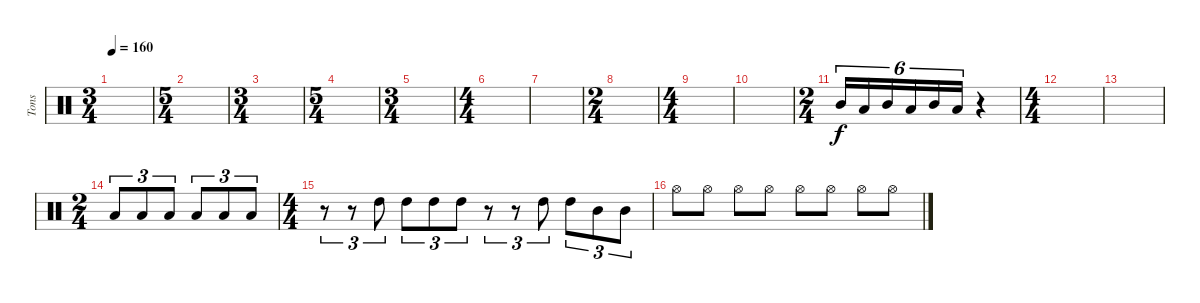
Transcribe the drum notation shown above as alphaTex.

\track ("Tons" "Tons") {instrument percussion}
\staff {score}
\articulation defaults
\ts (3 4)
\tempo 160
\clef neutral
\ks c
|
\ts (5 4)
|
\ts (3 4)
|
\ts (5 4)
|
\ts (3 4)
|
\ts (4 4)
|
|
\ts (2 4)
|
\ts (4 4)
|
|
\ts (2 4)
"Mid Tom (hit)".16{tu (6 4)} "Low Tom (hit)".16{tu (6 4)} "Mid Tom (hit)".16{tu (6 4)} "Low Tom (hit)".16{tu (6 4)} "Mid Tom (hit)".16{tu (6 4)} "Low Tom (hit)".16{tu (6 4)} r.4 |
\ts (4 4)
|
|
\ts (2 4)
"Low Tom (hit)".8{tu (3 2)} "Low Tom (hit)".8{tu (3 2)} "Low Tom (hit)".8{tu (3 2)} "Low Tom (hit)".8{tu (3 2)} "Low Tom (hit)".8{tu (3 2)} "Low Tom (hit)".8{tu (3 2)} |
\ts (4 4)
r.8{tu (3 2)} r.8{tu (3 2)} "High Tom (hit)".8{tu (3 2)} "High Tom (hit)".8{tu (3 2)} "High Tom (hit)".8{tu (3 2)} "High Tom (hit)".8{tu (3 2)} r.8{tu (3 2)} r.8{tu (3 2)} "High Tom (hit)".8{tu (3 2)} "High Tom (hit)".8{tu (3 2)} "Mid Tom (hit)".8{tu (3 2)} "Mid Tom (hit)".8{tu (3 2)} |
"Hi-Hat (open)".8{dy f} "Hi-Hat (open)".8 "Hi-Hat (open)".8 "Hi-Hat (open)".8 "Hi-Hat (open)".8 "Hi-Hat (open)".8 "Hi-Hat (open)".8 "Hi-Hat (open)".8
